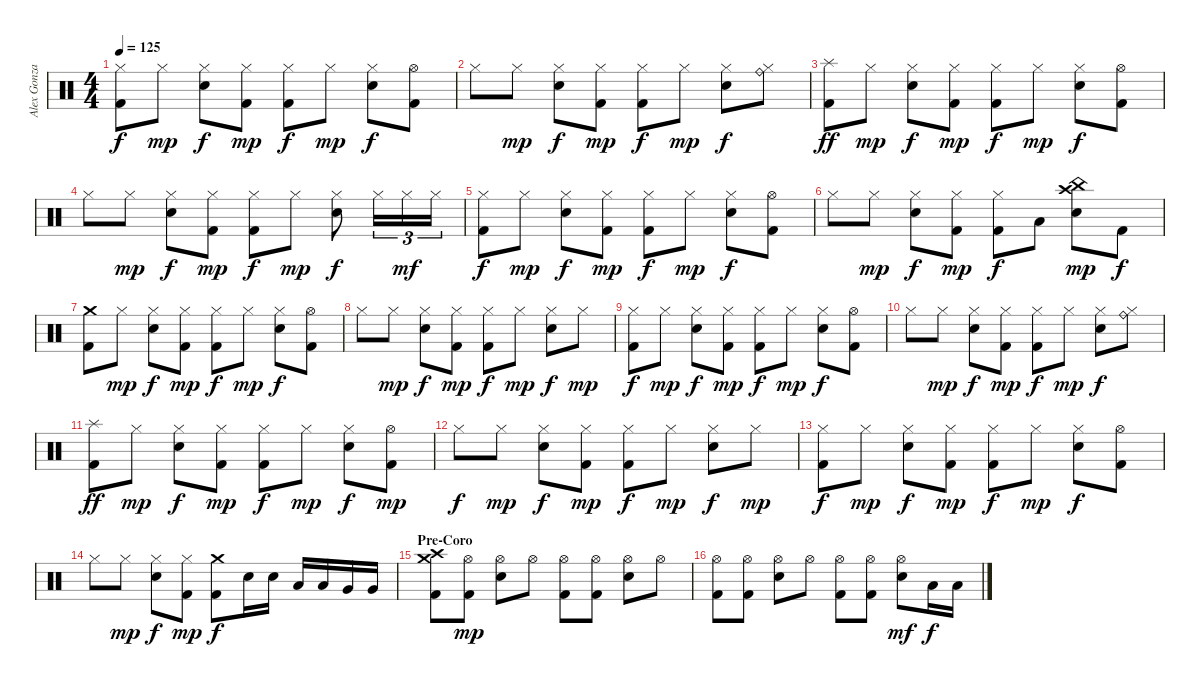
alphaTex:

\track ("Alex Gonzales" "Alex Gonza") {instrument percussion}
\staff {score}
\articulation defaults
\ts (4 4)
\tempo 125
\clef neutral
\ks c
("Hi-Hat (closed)" "Kick (hit) 2").8{dy f} "Hi-Hat (closed)".8{dy mp} ("Hi-Hat (closed)" "Electric Snare (hit)").8{dy f} ("Hi-Hat (closed)" "Kick (hit) 2").8{dy mp} ("Hi-Hat (closed)" "Kick (hit) 2").8{dy f} "Hi-Hat (closed)".8{dy mp} ("Hi-Hat (closed)" "Electric Snare (hit)").8{dy f} ("Hi-Hat (open)" "Kick (hit) 2").8 |
"Hi-Hat (closed)".8 "Hi-Hat (closed)".8{dy mp} ("Hi-Hat (closed)" "Electric Snare (hit)").8{dy f} ("Hi-Hat (closed)" "Kick (hit) 2").8{dy mp} ("Hi-Hat (closed)" "Kick (hit) 2").8{dy f} "Hi-Hat (closed)".8{dy mp} ("Hi-Hat (closed)" "Electric Snare (hit)").8{dy f} ("Hi-Hat (closed)" "Ride (bell)").8 |
("Splash (hit)" "Kick (hit) 2").8{dy ff} "Hi-Hat (closed)".8{dy mp} ("Hi-Hat (closed)" "Electric Snare (hit)").8{dy f} ("Hi-Hat (closed)" "Kick (hit) 2").8{dy mp} ("Hi-Hat (closed)" "Kick (hit) 2").8{dy f} "Hi-Hat (closed)".8{dy mp} ("Hi-Hat (closed)" "Electric Snare (hit)").8{dy f} ("Hi-Hat (open)" "Kick (hit) 2").8 |
"Hi-Hat (closed)".8 "Hi-Hat (closed)".8{dy mp} ("Hi-Hat (closed)" "Electric Snare (hit)").8{dy f} ("Hi-Hat (closed)" "Kick (hit) 2").8{dy mp} ("Hi-Hat (closed)" "Kick (hit) 2").8{dy f} "Hi-Hat (closed)".8{dy mp} ("Hi-Hat (closed)" "Electric Snare (hit)").8{dy f} "Hi-Hat (closed)".16{tu (3 2)} "Hi-Hat (closed)".16{tu (3 2) dy mf} "Hi-Hat (closed)".16{tu (3 2)} |
("Hi-Hat (closed)" "Kick (hit) 2").8{dy f} "Hi-Hat (closed)".8{dy mp} ("Hi-Hat (closed)" "Electric Snare (hit)").8{dy f} ("Hi-Hat (closed)" "Kick (hit) 2").8{dy mp} ("Hi-Hat (closed)" "Kick (hit) 2").8{dy f} "Hi-Hat (closed)".8{dy mp} ("Hi-Hat (closed)" "Electric Snare (hit)").8{dy f} ("Hi-Hat (open)" "Kick (hit) 2").8 |
"Hi-Hat (closed)".8 "Hi-Hat (closed)".8{dy mp} ("Hi-Hat (closed)" "Electric Snare (hit)").8{dy f} ("Hi-Hat (closed)" "Kick (hit) 2").8{dy mp} ("Hi-Hat (closed)" "Kick (hit) 2").8{dy f} "Low Tom (hit)".8 ("Crash high (hit)" "Electric Snare (hit)" "China (hit)").8{dy mp} "Kick (hit) 2".8{dy f} |
("Crash medium (hit)" "Kick (hit) 2").8 "Hi-Hat (closed)".8{dy mp} ("Hi-Hat (closed)" "Electric Snare (hit)").8{dy f} ("Hi-Hat (closed)" "Kick (hit) 2").8{dy mp} ("Hi-Hat (closed)" "Kick (hit) 2").8{dy f} "Hi-Hat (closed)".8{dy mp} ("Hi-Hat (closed)" "Electric Snare (hit)").8{dy f} ("Hi-Hat (open)" "Kick (hit) 2").8 |
"Hi-Hat (closed)".8 "Hi-Hat (closed)".8{dy mp} ("Hi-Hat (closed)" "Electric Snare (hit)").8{dy f} ("Hi-Hat (closed)" "Kick (hit) 2").8{dy mp} ("Hi-Hat (closed)" "Kick (hit) 2").8{dy f} "Hi-Hat (closed)".8{dy mp} ("Hi-Hat (closed)" "Electric Snare (hit)").8{dy f} "Hi-Hat (closed)".8{dy mp} |
("Hi-Hat (closed)" "Kick (hit) 2").8{dy f} "Hi-Hat (closed)".8{dy mp} ("Hi-Hat (closed)" "Electric Snare (hit)").8{dy f} ("Hi-Hat (closed)" "Kick (hit) 2").8{dy mp} ("Hi-Hat (closed)" "Kick (hit) 2").8{dy f} "Hi-Hat (closed)".8{dy mp} ("Hi-Hat (closed)" "Electric Snare (hit)").8{dy f} ("Hi-Hat (open)" "Kick (hit) 2").8 |
"Hi-Hat (closed)".8 "Hi-Hat (closed)".8{dy mp} ("Hi-Hat (closed)" "Electric Snare (hit)").8{dy f} ("Hi-Hat (closed)" "Kick (hit) 2").8{dy mp} ("Hi-Hat (closed)" "Kick (hit) 2").8{dy f} "Hi-Hat (closed)".8{dy mp} ("Hi-Hat (closed)" "Electric Snare (hit)").8{dy f} ("Hi-Hat (closed)" "Ride (bell)").8 |
("Splash (hit)" "Kick (hit) 2").8{dy ff} "Hi-Hat (closed)".8{dy mp} ("Hi-Hat (closed)" "Electric Snare (hit)").8{dy f} ("Hi-Hat (closed)" "Kick (hit) 2").8{dy mp} ("Hi-Hat (closed)" "Kick (hit) 2").8{dy f} "Hi-Hat (closed)".8{dy mp} ("Hi-Hat (closed)" "Electric Snare (hit)").8{dy f} ("Hi-Hat (open)" "Kick (hit) 2").8{dy mp} |
"Hi-Hat (closed)".8{dy f} "Hi-Hat (closed)".8{dy mp} ("Hi-Hat (closed)" "Electric Snare (hit)").8{dy f} ("Hi-Hat (closed)" "Kick (hit) 2").8{dy mp} ("Hi-Hat (closed)" "Kick (hit) 2").8{dy f} "Hi-Hat (closed)".8{dy mp} ("Hi-Hat (closed)" "Electric Snare (hit)").8{dy f} "Hi-Hat (closed)".8{dy mp} |
("Hi-Hat (closed)" "Kick (hit) 2").8{dy f} "Hi-Hat (closed)".8{dy mp} ("Hi-Hat (closed)" "Electric Snare (hit)").8{dy f} ("Hi-Hat (closed)" "Kick (hit) 2").8{dy mp} ("Hi-Hat (closed)" "Kick (hit) 2").8{dy f} "Hi-Hat (closed)".8{dy mp} ("Hi-Hat (closed)" "Electric Snare (hit)").8{dy f} ("Hi-Hat (open)" "Kick (hit) 2").8 |
"Hi-Hat (closed)".8 "Hi-Hat (closed)".8{dy mp} ("Hi-Hat (closed)" "Electric Snare (hit)").8{dy f} ("Hi-Hat (closed)" "Kick (hit) 2").8{dy mp} ("Crash medium (hit)" "Kick (hit) 2").8{dy f} "Electric Snare (hit)".16 "Electric Snare (hit)".16 "Low Tom (hit)".16 "Low Tom (hit)".16 "Very Low Tom (hit)".16 "Very Low Tom (hit)".16 |
\section ("" "Pre-Coro")
("Crash medium (hit)" "Crash high (hit)" "Kick (hit) 2").8 ("Hi-Hat (open)" "Kick (hit) 2").8{dy mp} ("Hi-Hat (open)" "Electric Snare (hit)").8 "Hi-Hat (open)".8 ("Hi-Hat (open)" "Kick (hit) 2").8 ("Hi-Hat (open)" "Kick (hit) 2").8 ("Hi-Hat (open)" "Electric Snare (hit)").8 "Hi-Hat (open)".8 |
("Hi-Hat (open)" "Kick (hit) 2").8 ("Hi-Hat (open)" "Kick (hit) 2").8 ("Hi-Hat (open)" "Electric Snare (hit)").8 "Hi-Hat (open)".8 ("Hi-Hat (open)" "Kick (hit) 2").8 ("Hi-Hat (open)" "Kick (hit) 2").8 ("Hi-Hat (open)" "Electric Snare (hit)").8{dy mf} "Low Tom (hit)".16{dy f} "Low Tom (hit)".16
